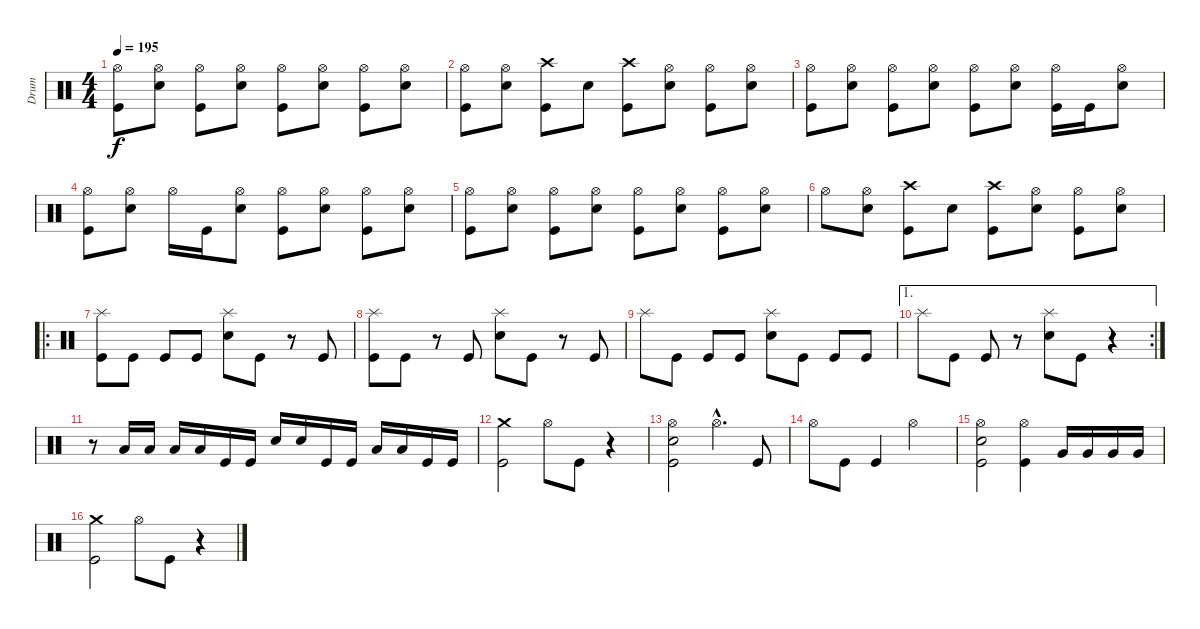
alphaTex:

\track ("Drum" "Drum") {instrument percussion}
\staff {score}
\articulation defaults
\ts (4 4)
\tempo 195
\clef neutral
\ks c
("Hi-Hat (open)" "Kick (hit)").8{dy f} ("Hi-Hat (open)" "Snare (hit) 2").8 ("Hi-Hat (open)" "Kick (hit)").8 ("Hi-Hat (open)" "Snare (hit) 2").8 ("Hi-Hat (open)" "Kick (hit)").8 ("Hi-Hat (open)" "Snare (hit) 2").8 ("Hi-Hat (open)" "Kick (hit)").8 ("Hi-Hat (open)" "Snare (hit) 2").8 |
("Hi-Hat (open)" "Kick (hit)").8 ("Hi-Hat (open)" "Snare (hit) 2").8 ("Crash high (hit)" "Kick (hit)").8 "Snare (hit) 2".8 ("Crash high (hit)" "Kick (hit)").8 ("Hi-Hat (open)" "Snare (hit) 2").8 ("Hi-Hat (open)" "Kick (hit)").8 ("Hi-Hat (open)" "Snare (hit) 2").8 |
("Hi-Hat (open)" "Kick (hit)").8 ("Hi-Hat (open)" "Snare (hit) 2").8 ("Hi-Hat (open)" "Kick (hit)").8 ("Hi-Hat (open)" "Snare (hit) 2").8 ("Hi-Hat (open)" "Kick (hit)").8 ("Hi-Hat (open)" "Snare (hit) 2").8 ("Hi-Hat (open)" "Kick (hit)").16 "Kick (hit)".16 ("Hi-Hat (open)" "Snare (hit) 2").8 |
("Hi-Hat (open)" "Kick (hit)").8 ("Hi-Hat (open)" "Snare (hit) 2").8 "Hi-Hat (open)".16 "Kick (hit)".16 ("Hi-Hat (open)" "Snare (hit) 2").8 ("Hi-Hat (open)" "Kick (hit)").8 ("Hi-Hat (open)" "Snare (hit) 2").8 ("Hi-Hat (open)" "Kick (hit)").8 ("Hi-Hat (open)" "Snare (hit) 2").8 |
("Hi-Hat (open)" "Kick (hit)").8 ("Hi-Hat (open)" "Snare (hit) 2").8 ("Hi-Hat (open)" "Kick (hit)").8 ("Hi-Hat (open)" "Snare (hit) 2").8 ("Hi-Hat (open)" "Kick (hit)").8 ("Hi-Hat (open)" "Snare (hit) 2").8 ("Hi-Hat (open)" "Kick (hit)").8 ("Hi-Hat (open)" "Snare (hit) 2").8 |
"Hi-Hat (open)".8 ("Hi-Hat (open)" "Snare (hit) 2").8 ("Crash high (hit)" "Kick (hit)").8 "Snare (hit) 2".8 ("Crash high (hit)" "Kick (hit)").8 ("Hi-Hat (open)" "Snare (hit) 2").8 ("Hi-Hat (open)" "Kick (hit)").8 ("Hi-Hat (open)" "Snare (hit) 2").8 |
\ro
("Splash (hit)" "Kick (hit)").8 "Kick (hit)".8 "Kick (hit)".8 "Kick (hit)".8 ("Splash (hit)" "Snare (hit) 2").8 "Kick (hit)".8 r.8 "Kick (hit)".8 |
("Splash (hit)" "Kick (hit)").8 "Kick (hit)".8 r.8 "Kick (hit)".8 ("Splash (hit)" "Snare (hit) 2").8 "Kick (hit)".8 r.8 "Kick (hit)".8 |
"Splash (hit)".8 "Kick (hit)".8 "Kick (hit)".8 "Kick (hit)".8 ("Splash (hit)" "Snare (hit) 2").8 "Kick (hit)".8 "Kick (hit)".8 "Kick (hit)".8 |
\ae 1
\rc 2 "Splash (hit)".8 "Kick (hit)".8 "Kick (hit)".8
r.8 ("Splash (hit)" "Snare (hit) 2").8 "Kick (hit)".8 r.4 |
r.8 "Low Tom (hit)".16 "Low Tom (hit)".16 "Low Tom (hit)".16 "Low Tom (hit)".16 "Kick (hit)".16 "Kick (hit)".16 "Snare (hit) 2".16 "Snare (hit) 2".16 "Kick (hit)".16 "Kick (hit)".16 "Low Tom (hit)".16 "Low Tom (hit)".16 "Kick (hit)".16 "Kick (hit)".16 |
("Crash medium (hit)" "Kick (hit)").2 "Hi-Hat (open)".8 "Kick (hit)".8 r.4 |
("Hi-Hat (open)" "Snare (hit) 2" "Kick (hit)").2 "Hi-Hat (open)"{hac}.4{d} "Kick (hit)".8 |
"Hi-Hat (open)".8 "Kick (hit)".8 "Kick (hit)".4 "Hi-Hat (open)".2 |
("Hi-Hat (open)" "Snare (hit) 2" "Kick (hit)").2 ("Hi-Hat (open)" "Kick (hit)").4 "Very Low Tom (hit)".16 "Very Low Tom (hit)".16 "Very Low Tom (hit)".16 "Very Low Tom (hit)".16 |
("Crash medium (hit)" "Kick (hit)").2 "Hi-Hat (open)".8 "Kick (hit)".8 r.4
